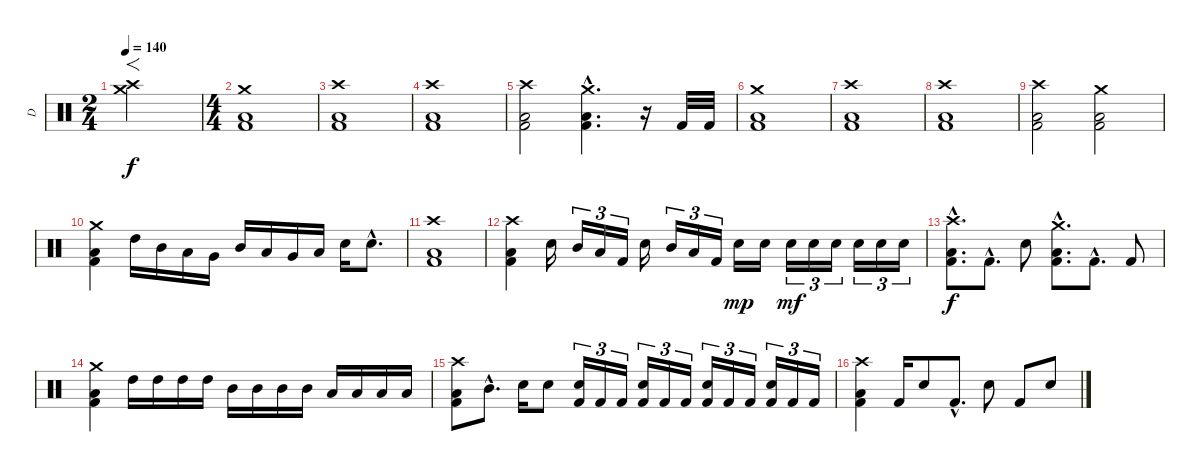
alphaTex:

\track ("D" "D") {instrument percussion}
\staff {score}
\articulation defaults
\ts (2 4)
\tempo 140
\clef neutral
\ks c
("Crash high (hit)" "Crash medium (hit)").2{f dy f} |
\ts (4 4)
("Crash medium (hit)" "Low Floor Tom (hit)" "Kick (hit) 2").1 |
("Crash high (hit)" "Low Floor Tom (hit)" "Kick (hit) 2").1 |
("Crash high (hit)" "Low Floor Tom (hit)" "Kick (hit) 2").1 |
("Crash high (hit)" "Low Floor Tom (hit)" "Kick (hit) 2").2 ("Crash medium (hit)"{hac} "Low Floor Tom (hit)"{hac} "Kick (hit) 2"{hac}).4{d} r.16 "Kick (hit) 2".32 "Kick (hit) 2".32 |
("Crash medium (hit)" "Low Floor Tom (hit)" "Kick (hit) 2").1 |
("Crash high (hit)" "Low Floor Tom (hit)" "Kick (hit) 2").1 |
("Crash high (hit)" "Low Floor Tom (hit)" "Kick (hit) 2").1 |
("Crash high (hit)" "Low Floor Tom (hit)" "Kick (hit) 2").2 ("Crash medium (hit)" "Low Floor Tom (hit)" "Kick (hit) 2").2 |
("Crash medium (hit)" "Low Floor Tom (hit)" "Kick (hit) 2").4 "High Tom (hit)".16 "Mid Tom (hit)".16 "Low Tom (hit)".16 "Very Low Tom (hit)".16 "Mid Tom (hit)".16 "Low Tom (hit)".16 "Very Low Tom (hit)".16 "Low Floor Tom (hit)".16 "Electric Snare (hit)".16 "Electric Snare (hit)"{hac}.8{d} |
("Crash high (hit)" "Low Floor Tom (hit)" "Kick (hit) 2").1 |
("Crash high (hit)" "Low Floor Tom (hit)" "Kick (hit) 2").4 "Electric Snare (hit)".16 "Mid Tom (hit)".16{tu (3 2)} "Low Tom (hit)".16{tu (3 2)} "Kick (hit) 2".16{tu (3 2)} "Electric Snare (hit)".16 "Mid Tom (hit)".16{tu (3 2)} "Low Tom (hit)".16{tu (3 2)} "Kick (hit) 2".16{tu (3 2)} "Electric Snare (hit)".16{dy mp} "Electric Snare (hit)".16 "Electric Snare (hit)".16{tu (3 2) dy mf} "Electric Snare (hit)".16{tu (3 2)} "Electric Snare (hit)".16{tu (3 2)} "Electric Snare (hit)".16{tu (3 2)} "Electric Snare (hit)".16{tu (3 2)} "Electric Snare (hit)".16{tu (3 2)} |
("Crash high (hit)"{hac} "Low Floor Tom (hit)"{hac} "Kick (hit) 2"{hac}).8{d dy f} "Kick (hit) 2"{hac}.8{d} "Electric Snare (hit)".8 ("Crash medium (hit)"{hac} "Low Floor Tom (hit)"{hac} "Kick (hit) 2"{hac}).8{d} "Kick (hit) 2"{hac}.8{d} "Kick (hit) 2".8 |
("Crash medium (hit)" "Low Floor Tom (hit)" "Kick (hit) 2").4 "High Tom (hit)".16 "High Tom (hit)".16 "High Tom (hit)".16 "High Tom (hit)".16 "Mid Tom (hit)".16 "Mid Tom (hit)".16 "Mid Tom (hit)".16 "Mid Tom (hit)".16 "Low Tom (hit)".16 "Low Tom (hit)".16 "Low Tom (hit)".16 "Low Tom (hit)".16 |
("Crash high (hit)" "Low Floor Tom (hit)" "Kick (hit) 2").8 "Mid Tom (hit)"{hac}.8{d} "Electric Snare (hit)".16 "Electric Snare (hit)".8 ("Electric Snare (hit)" "Kick (hit) 2").16{tu (3 2)} "Kick (hit) 2".16{tu (3 2)} "Kick (hit) 2".16{tu (3 2)} ("Electric Snare (hit)" "Kick (hit) 2").16{tu (3 2)} "Kick (hit) 2".16{tu (3 2)} "Kick (hit) 2".16{tu (3 2)} ("Electric Snare (hit)" "Kick (hit) 2").16{tu (3 2)} "Kick (hit) 2".16{tu (3 2)} "Kick (hit) 2".16{tu (3 2)} ("Electric Snare (hit)" "Kick (hit) 2").16{tu (3 2)} "Kick (hit) 2".16{tu (3 2)} "Kick (hit) 2".16{tu (3 2)} |
("Crash high (hit)" "Low Floor Tom (hit)" "Kick (hit) 2").4 "Kick (hit) 2".16 "Electric Snare (hit)".8 "Kick (hit) 2"{hac}.8{d} "Electric Snare (hit)".8 "Kick (hit) 2".8 "Electric Snare (hit)".8
